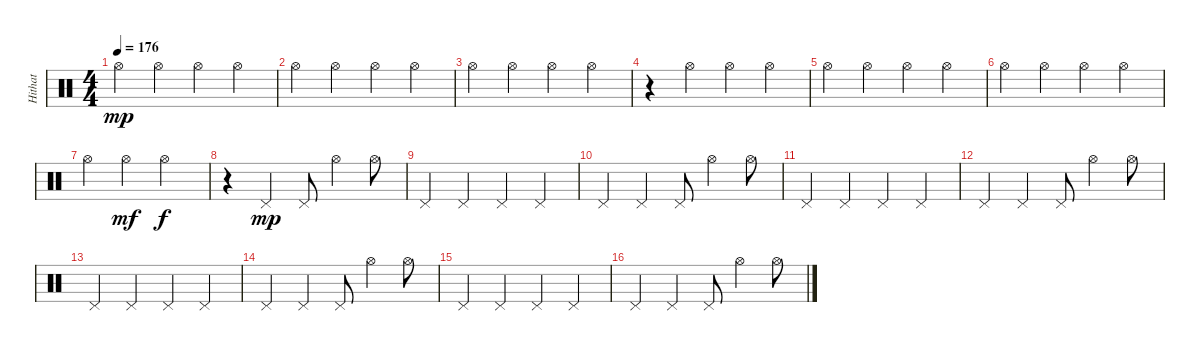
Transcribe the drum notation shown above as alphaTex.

\track ("Hithat" "Hithat") {instrument percussion}
\staff {score}
\articulation defaults
\ts (4 4)
\tempo 176
\clef neutral
\ks c "Hi-Hat (open)".4{dy mp} "Hi-Hat (open)".4 "Hi-Hat (open)".4 "Hi-Hat (open)".4
|
"Hi-Hat (open)".4 "Hi-Hat (open)".4 "Hi-Hat (open)".4 "Hi-Hat (open)".4 |
"Hi-Hat (open)".4 "Hi-Hat (open)".4 "Hi-Hat (open)".4 "Hi-Hat (open)".4 |
r.4 "Hi-Hat (open)".4 "Hi-Hat (open)".4 "Hi-Hat (open)".4 |
"Hi-Hat (open)".4 "Hi-Hat (open)".4 "Hi-Hat (open)".4 "Hi-Hat (open)".4 |
"Hi-Hat (open)".4 "Hi-Hat (open)".4 "Hi-Hat (open)".4 "Hi-Hat (open)".4 |
"Hi-Hat (open)".4 "Hi-Hat (open)".4{dy mf} "Hi-Hat (open)".2{dy f} |
r.4 "Pedal Hi-Hat (hit)".4{dy mp} "Pedal Hi-Hat (hit)".8 "Hi-Hat (open)".4 "Hi-Hat (open)".8 |
"Pedal Hi-Hat (hit)".4 "Pedal Hi-Hat (hit)".4 "Pedal Hi-Hat (hit)".4 "Pedal Hi-Hat (hit)".4 |
"Pedal Hi-Hat (hit)".4 "Pedal Hi-Hat (hit)".4 "Pedal Hi-Hat (hit)".8 "Hi-Hat (open)".4 "Hi-Hat (open)".8 |
"Pedal Hi-Hat (hit)".4 "Pedal Hi-Hat (hit)".4 "Pedal Hi-Hat (hit)".4 "Pedal Hi-Hat (hit)".4 |
"Pedal Hi-Hat (hit)".4 "Pedal Hi-Hat (hit)".4 "Pedal Hi-Hat (hit)".8 "Hi-Hat (open)".4 "Hi-Hat (open)".8 |
"Pedal Hi-Hat (hit)".4 "Pedal Hi-Hat (hit)".4 "Pedal Hi-Hat (hit)".4 "Pedal Hi-Hat (hit)".4 |
"Pedal Hi-Hat (hit)".4 "Pedal Hi-Hat (hit)".4 "Pedal Hi-Hat (hit)".8 "Hi-Hat (open)".4 "Hi-Hat (open)".8 |
"Pedal Hi-Hat (hit)".4 "Pedal Hi-Hat (hit)".4 "Pedal Hi-Hat (hit)".4 "Pedal Hi-Hat (hit)".4 |
"Pedal Hi-Hat (hit)".4 "Pedal Hi-Hat (hit)".4 "Pedal Hi-Hat (hit)".8 "Hi-Hat (open)".4 "Hi-Hat (open)".8
